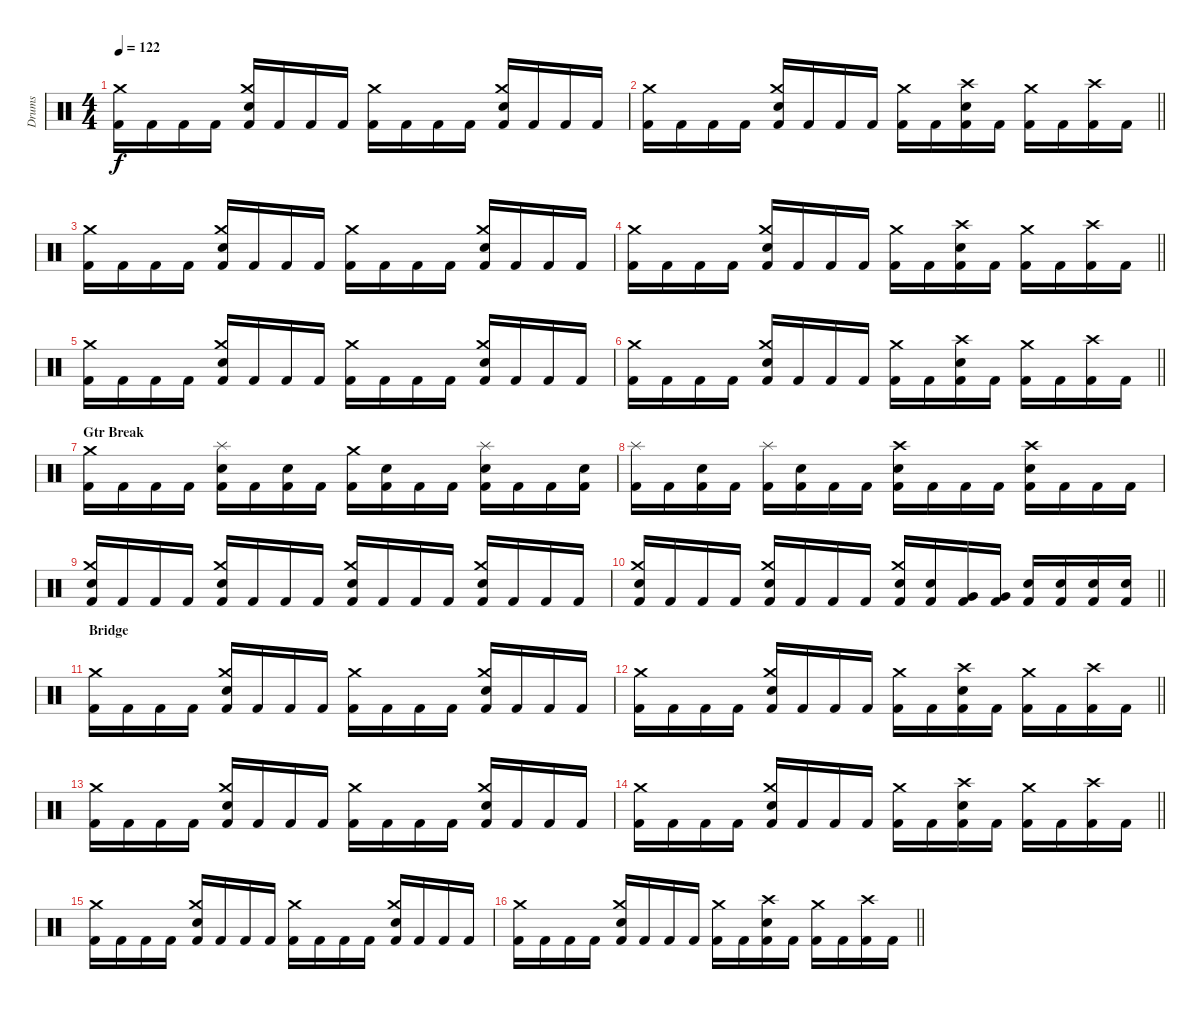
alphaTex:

\track ("Drums" "Drums") {instrument percussion}
\staff {score}
\articulation defaults
\ts (4 4)
\tempo 122
\clef neutral
\ks c
("Kick (hit) 2" "Crash medium (hit)").16{dy f} "Kick (hit) 2".16 "Kick (hit) 2".16 "Kick (hit) 2".16 ("Kick (hit) 2" "Snare (hit) 2" "Crash medium (hit)").16 "Kick (hit) 2".16 "Kick (hit) 2".16 "Kick (hit) 2".16 ("Kick (hit) 2" "Crash medium (hit)").16 "Kick (hit) 2".16 "Kick (hit) 2".16 "Kick (hit) 2".16 ("Kick (hit) 2" "Snare (hit) 2" "Crash medium (hit)").16 "Kick (hit) 2".16 "Kick (hit) 2".16 "Kick (hit) 2".16 |
\barLineRight lightlight
("Kick (hit) 2" "Crash medium (hit)").16 "Kick (hit) 2".16 "Kick (hit) 2".16 "Kick (hit) 2".16 ("Kick (hit) 2" "Snare (hit) 2" "Crash medium (hit)").16 "Kick (hit) 2".16 "Kick (hit) 2".16 "Kick (hit) 2".16 ("Kick (hit) 2" "Crash medium (hit)").16 "Kick (hit) 2".16 ("Kick (hit) 2" "Snare (hit) 2" "Crash high (hit)").16 "Kick (hit) 2".16 ("Kick (hit) 2" "Crash medium (hit)").16 "Kick (hit) 2".16 ("Kick (hit) 2" "Crash high (hit)").16 "Kick (hit) 2".16 |
\section ("" "")
("Kick (hit) 2" "Crash medium (hit)").16 "Kick (hit) 2".16 "Kick (hit) 2".16 "Kick (hit) 2".16 ("Kick (hit) 2" "Snare (hit) 2" "Crash medium (hit)").16 "Kick (hit) 2".16 "Kick (hit) 2".16 "Kick (hit) 2".16 ("Kick (hit) 2" "Crash medium (hit)").16 "Kick (hit) 2".16 "Kick (hit) 2".16 "Kick (hit) 2".16 ("Kick (hit) 2" "Snare (hit) 2" "Crash medium (hit)").16 "Kick (hit) 2".16 "Kick (hit) 2".16 "Kick (hit) 2".16 |
\barLineRight lightlight
("Kick (hit) 2" "Crash medium (hit)").16 "Kick (hit) 2".16 "Kick (hit) 2".16 "Kick (hit) 2".16 ("Kick (hit) 2" "Snare (hit) 2" "Crash medium (hit)").16 "Kick (hit) 2".16 "Kick (hit) 2".16 "Kick (hit) 2".16 ("Kick (hit) 2" "Crash medium (hit)").16 "Kick (hit) 2".16 ("Kick (hit) 2" "Snare (hit) 2" "Crash high (hit)").16 "Kick (hit) 2".16 ("Kick (hit) 2" "Crash medium (hit)").16 "Kick (hit) 2".16 ("Kick (hit) 2" "Crash high (hit)").16 "Kick (hit) 2".16 |
("Kick (hit) 2" "Crash medium (hit)").16 "Kick (hit) 2".16 "Kick (hit) 2".16 "Kick (hit) 2".16 ("Kick (hit) 2" "Snare (hit) 2" "Crash medium (hit)").16 "Kick (hit) 2".16 "Kick (hit) 2".16 "Kick (hit) 2".16 ("Kick (hit) 2" "Crash medium (hit)").16 "Kick (hit) 2".16 "Kick (hit) 2".16 "Kick (hit) 2".16 ("Kick (hit) 2" "Snare (hit) 2" "Crash medium (hit)").16 "Kick (hit) 2".16 "Kick (hit) 2".16 "Kick (hit) 2".16 |
\barLineRight lightlight
("Kick (hit) 2" "Crash medium (hit)").16 "Kick (hit) 2".16 "Kick (hit) 2".16 "Kick (hit) 2".16 ("Kick (hit) 2" "Snare (hit) 2" "Crash medium (hit)").16 "Kick (hit) 2".16 "Kick (hit) 2".16 "Kick (hit) 2".16 ("Kick (hit) 2" "Crash medium (hit)").16 "Kick (hit) 2".16 ("Kick (hit) 2" "Snare (hit) 2" "Crash high (hit)").16 "Kick (hit) 2".16 ("Kick (hit) 2" "Crash medium (hit)").16 "Kick (hit) 2".16 ("Kick (hit) 2" "Crash high (hit)").16 "Kick (hit) 2".16 |
\section ("" "Gtr Break")
("Kick (hit) 2" "Crash medium (hit)").16 "Kick (hit) 2".16 "Kick (hit) 2".16 "Kick (hit) 2".16 ("Kick (hit) 2" "Snare (hit) 2" "Splash (hit)").16 "Kick (hit) 2".16 ("Kick (hit) 2" "Snare (hit) 2").16 "Kick (hit) 2".16 ("Kick (hit) 2" "Crash medium (hit)").16 ("Kick (hit) 2" "Snare (hit) 2").16 "Kick (hit) 2".16 "Kick (hit) 2".16 ("Kick (hit) 2" "Snare (hit) 2" "Splash (hit)").16 "Kick (hit) 2".16 "Kick (hit) 2".16 ("Kick (hit) 2" "Snare (hit) 2").16 |
("Kick (hit) 2" "Splash (hit)").16 "Kick (hit) 2".16 ("Kick (hit) 2" "Snare (hit) 2").16 "Kick (hit) 2".16 ("Kick (hit) 2" "Splash (hit)").16 ("Kick (hit) 2" "Snare (hit) 2").16 "Kick (hit) 2".16 "Kick (hit) 2".16 ("Kick (hit) 2" "Snare (hit) 2" "Crash high (hit)").16 "Kick (hit) 2".16 "Kick (hit) 2".16 "Kick (hit) 2".16 ("Kick (hit) 2" "Snare (hit) 2" "Crash high (hit)").16 "Kick (hit) 2".16 "Kick (hit) 2".16 "Kick (hit) 2".16 |
("Kick (hit) 2" "Snare (hit) 2" "Crash medium (hit)").16 "Kick (hit) 2".16 "Kick (hit) 2".16 "Kick (hit) 2".16 ("Kick (hit) 2" "Snare (hit) 2" "Crash medium (hit)").16 "Kick (hit) 2".16 "Kick (hit) 2".16 "Kick (hit) 2".16 ("Kick (hit) 2" "Snare (hit) 2" "Crash medium (hit)").16 "Kick (hit) 2".16 "Kick (hit) 2".16 "Kick (hit) 2".16 ("Kick (hit) 2" "Snare (hit) 2" "Crash medium (hit)").16 "Kick (hit) 2".16 "Kick (hit) 2".16 "Kick (hit) 2".16 |
\barLineRight lightlight
("Kick (hit) 2" "Snare (hit) 2" "Crash medium (hit)").16 "Kick (hit) 2".16 "Kick (hit) 2".16 "Kick (hit) 2".16 ("Kick (hit) 2" "Snare (hit) 2" "Crash medium (hit)").16 "Kick (hit) 2".16 "Kick (hit) 2".16 "Kick (hit) 2".16 ("Kick (hit) 2" "Snare (hit) 2" "Crash medium (hit)").16 ("Kick (hit) 2" "Snare (hit) 2").16 ("Kick (hit) 2" "Very Low Tom (hit)").16 ("Kick (hit) 2" "Very Low Tom (hit)").16 ("Kick (hit) 2" "Snare (hit) 2").16 ("Kick (hit) 2" "Snare (hit) 2").16 ("Kick (hit) 2" "Snare (hit) 2").16 ("Kick (hit) 2" "Snare (hit) 2").16 |
\section ("" "Bridge")
("Kick (hit) 2" "Crash medium (hit)").16 "Kick (hit) 2".16 "Kick (hit) 2".16 "Kick (hit) 2".16 ("Kick (hit) 2" "Snare (hit) 2" "Crash medium (hit)").16 "Kick (hit) 2".16 "Kick (hit) 2".16 "Kick (hit) 2".16 ("Kick (hit) 2" "Crash medium (hit)").16 "Kick (hit) 2".16 "Kick (hit) 2".16 "Kick (hit) 2".16 ("Kick (hit) 2" "Snare (hit) 2" "Crash medium (hit)").16 "Kick (hit) 2".16 "Kick (hit) 2".16 "Kick (hit) 2".16 |
\barLineRight lightlight
("Kick (hit) 2" "Crash medium (hit)").16 "Kick (hit) 2".16 "Kick (hit) 2".16 "Kick (hit) 2".16 ("Kick (hit) 2" "Snare (hit) 2" "Crash medium (hit)").16 "Kick (hit) 2".16 "Kick (hit) 2".16 "Kick (hit) 2".16 ("Kick (hit) 2" "Crash medium (hit)").16 "Kick (hit) 2".16 ("Kick (hit) 2" "Snare (hit) 2" "Crash high (hit)").16 "Kick (hit) 2".16 ("Kick (hit) 2" "Crash medium (hit)").16 "Kick (hit) 2".16 ("Kick (hit) 2" "Crash high (hit)").16 "Kick (hit) 2".16 |
("Kick (hit) 2" "Crash medium (hit)").16 "Kick (hit) 2".16 "Kick (hit) 2".16 "Kick (hit) 2".16 ("Kick (hit) 2" "Snare (hit) 2" "Crash medium (hit)").16 "Kick (hit) 2".16 "Kick (hit) 2".16 "Kick (hit) 2".16 ("Kick (hit) 2" "Crash medium (hit)").16 "Kick (hit) 2".16 "Kick (hit) 2".16 "Kick (hit) 2".16 ("Kick (hit) 2" "Snare (hit) 2" "Crash medium (hit)").16 "Kick (hit) 2".16 "Kick (hit) 2".16 "Kick (hit) 2".16 |
\barLineRight lightlight
("Kick (hit) 2" "Crash medium (hit)").16 "Kick (hit) 2".16 "Kick (hit) 2".16 "Kick (hit) 2".16 ("Kick (hit) 2" "Snare (hit) 2" "Crash medium (hit)").16 "Kick (hit) 2".16 "Kick (hit) 2".16 "Kick (hit) 2".16 ("Kick (hit) 2" "Crash medium (hit)").16 "Kick (hit) 2".16 ("Kick (hit) 2" "Snare (hit) 2" "Crash high (hit)").16 "Kick (hit) 2".16 ("Kick (hit) 2" "Crash medium (hit)").16 "Kick (hit) 2".16 ("Kick (hit) 2" "Crash high (hit)").16 "Kick (hit) 2".16 |
\section ("" "")
("Kick (hit) 2" "Crash medium (hit)").16 "Kick (hit) 2".16 "Kick (hit) 2".16 "Kick (hit) 2".16 ("Kick (hit) 2" "Snare (hit) 2" "Crash medium (hit)").16 "Kick (hit) 2".16 "Kick (hit) 2".16 "Kick (hit) 2".16 ("Kick (hit) 2" "Crash medium (hit)").16 "Kick (hit) 2".16 "Kick (hit) 2".16 "Kick (hit) 2".16 ("Kick (hit) 2" "Snare (hit) 2" "Crash medium (hit)").16 "Kick (hit) 2".16 "Kick (hit) 2".16 "Kick (hit) 2".16 |
\barLineRight lightlight
("Kick (hit) 2" "Crash medium (hit)").16 "Kick (hit) 2".16 "Kick (hit) 2".16 "Kick (hit) 2".16 ("Kick (hit) 2" "Snare (hit) 2" "Crash medium (hit)").16 "Kick (hit) 2".16 "Kick (hit) 2".16 "Kick (hit) 2".16 ("Kick (hit) 2" "Crash medium (hit)").16 "Kick (hit) 2".16 ("Kick (hit) 2" "Snare (hit) 2" "Crash high (hit)").16 "Kick (hit) 2".16 ("Kick (hit) 2" "Crash medium (hit)").16 "Kick (hit) 2".16 ("Kick (hit) 2" "Crash high (hit)").16 "Kick (hit) 2".16
